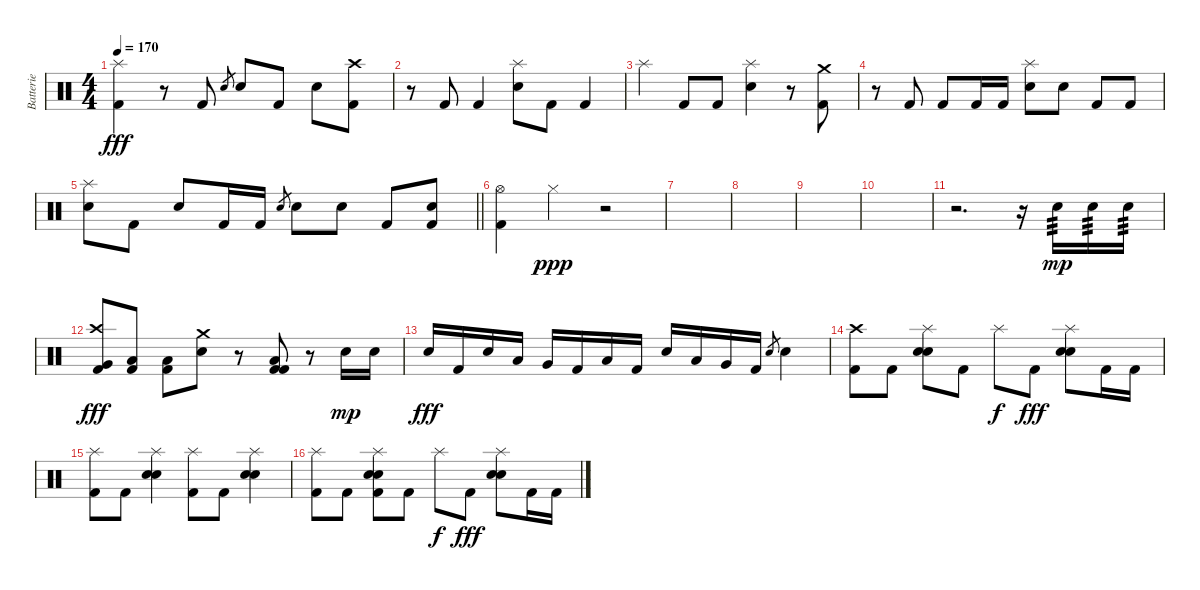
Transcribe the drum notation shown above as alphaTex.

\track ("Batterie" "Batterie") {instrument percussion}
\staff {score}
\articulation defaults
\ts (4 4)
\tempo 170
\clef neutral
\ks c
("Splash (hit)" "Kick (hit) 2").4{dy fff} r.8 "Kick (hit) 2".8 "Electric Snare (hit)".8{gr} "Electric Snare (hit)".8 "Kick (hit) 2".8 "Electric Snare (hit)".8 ("Crash high (hit)" "Kick (hit) 2").8 |
r.8 "Kick (hit) 2".8 "Kick (hit) 2".4 ("Splash (hit)" "Electric Snare (hit)").8 "Kick (hit) 2".8 "Kick (hit) 2".4 |
"Splash (hit)".4 "Kick (hit) 2".8 "Kick (hit) 2".8 ("Splash (hit)" "Electric Snare (hit)").4 r.8 ("Crash medium (hit)" "Kick (hit) 2").8 |
r.8 "Kick (hit) 2".8 "Kick (hit) 2".8 "Kick (hit) 2".16 "Kick (hit) 2".16 ("Splash (hit)" "Electric Snare (hit)").8 "Electric Snare (hit)".8 "Kick (hit) 2".8 "Kick (hit) 2".8 |
\barLineRight lightlight
("Splash (hit)" "Electric Snare (hit)").8 "Kick (hit) 2".8 "Electric Snare (hit)".8 "Kick (hit) 2".16 "Kick (hit) 2".16 "Electric Snare (hit)".8{gr} "Electric Snare (hit)".8 "Electric Snare (hit)".8 "Kick (hit) 2".8 ("Electric Snare (hit)" "Kick (hit) 2").8 |
("Hi-Hat (open)" "Kick (hit) 2").4 "Hi-Hat (closed)".4{dy ppp} r.2 |
|
|
|
|
r.2{d} r.16 "Electric Snare (hit)".16{tp 3 dy mp} "Electric Snare (hit)".16{tp 3} "Electric Snare (hit)".16{tp 3} |
("Crash high (hit)" "Very Low Tom (hit)" "Kick (hit) 2").8{dy fff} ("Low Floor Tom (hit)" "Kick (hit) 2").8 ("Low Floor Tom (hit)" "Kick (hit) 2").8 ("Crash medium (hit)" "Electric Snare (hit)").8 r.8 ("Kick (hit) 2" "Kick (hit) 2" "Low Floor Tom (hit)").8 r.8 "Electric Snare (hit)".16{dy mp} "Electric Snare (hit)".16 |
"Electric Snare (hit)".16{dy fff} "Kick (hit) 2".16 "Electric Snare (hit)".16 "Low Tom (hit)".16 "Very Low Tom (hit)".16 "Kick (hit) 2".16 "Low Floor Tom (hit)".16 "Kick (hit) 2".16 "Electric Snare (hit)".16 "Low Tom (hit)".16 "Very Low Tom (hit)".16 "Kick (hit) 2".16 "Electric Snare (hit)".8{gr} "Electric Snare (hit)".4 |
("Crash high (hit)" "Kick (hit) 2").8 "Kick (hit) 2".8 ("Splash (hit)" "Electric Snare (hit)" "Electric Snare (hit)").8 "Kick (hit) 2".8 "Splash (hit)".8{dy f} "Kick (hit) 2".8{dy fff} ("Splash (hit)" "Electric Snare (hit)" "Electric Snare (hit)").8 "Kick (hit) 2".16 "Kick (hit) 2".16 |
("Splash (hit)" "Kick (hit) 2").8 "Kick (hit) 2".8 ("Splash (hit)" "Electric Snare (hit)" "Electric Snare (hit)").4 ("Splash (hit)" "Kick (hit) 2").8 "Kick (hit) 2".8 ("Splash (hit)" "Electric Snare (hit)" "Electric Snare (hit)").4 |
("Splash (hit)" "Kick (hit) 2").8 "Kick (hit) 2".8 ("Splash (hit)" "Electric Snare (hit)" "Electric Snare (hit)" "Kick (hit) 2").8 "Kick (hit) 2".8 "Splash (hit)".8{dy f} "Kick (hit) 2".8{dy fff} ("Splash (hit)" "Electric Snare (hit)" "Electric Snare (hit)").8 "Kick (hit) 2".16 "Kick (hit) 2".16
